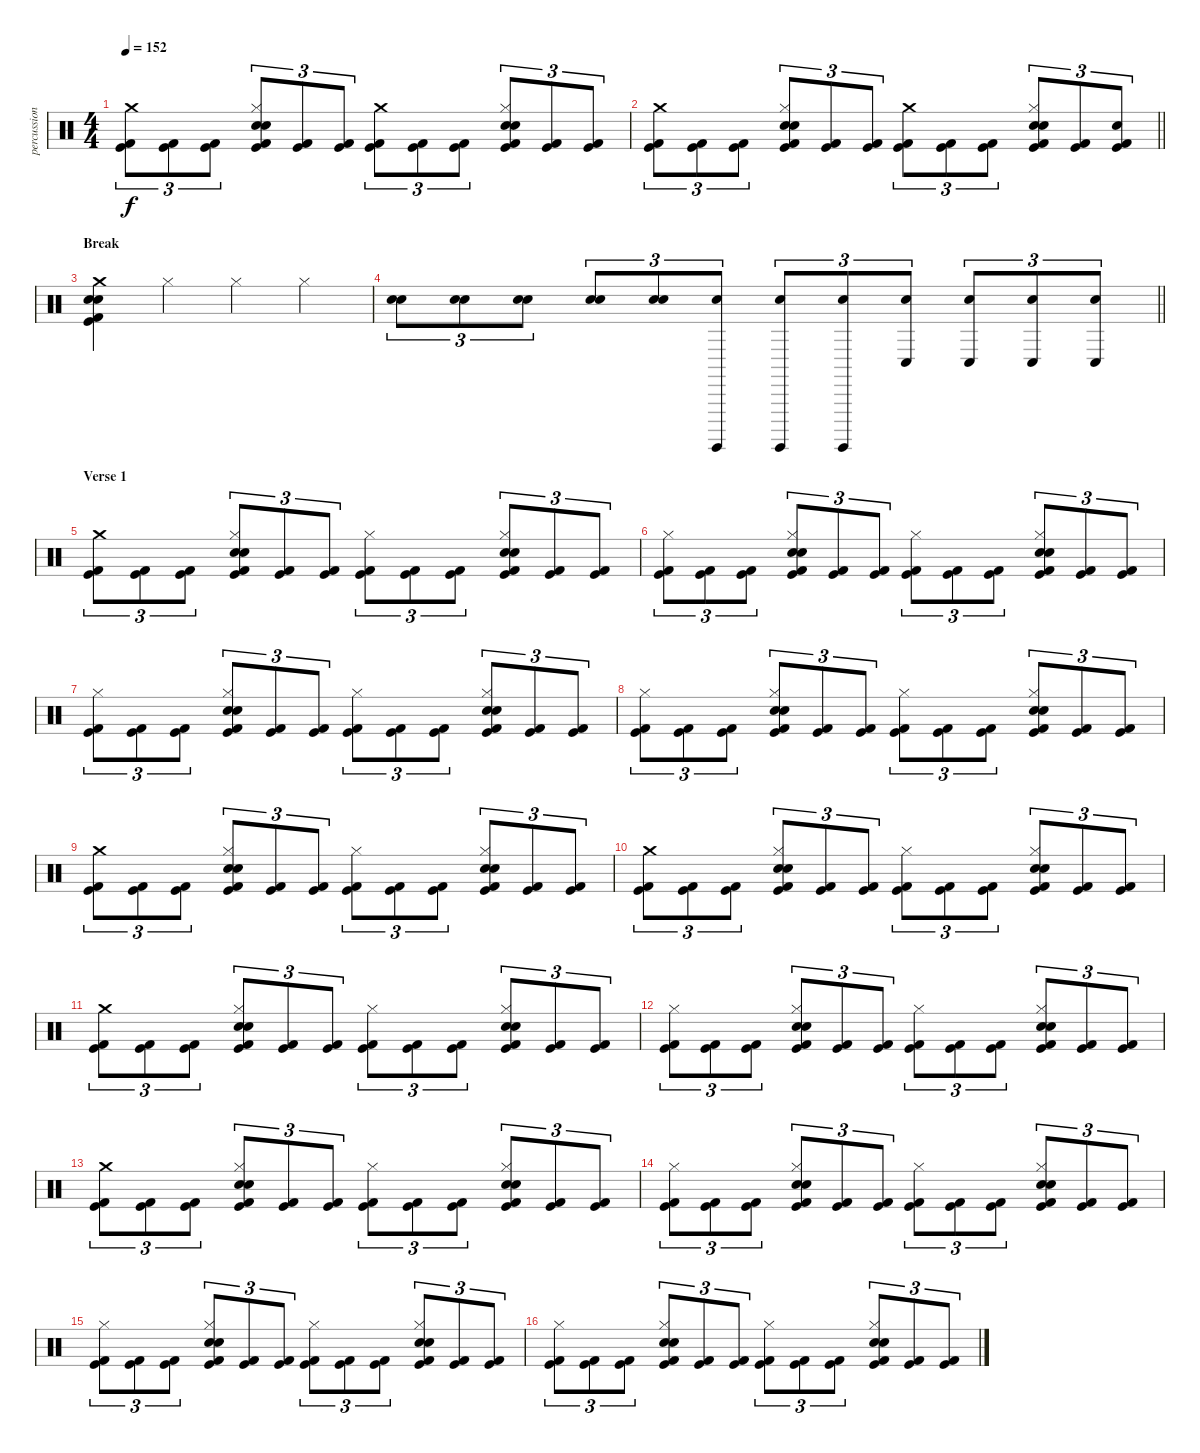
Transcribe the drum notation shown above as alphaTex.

\track ("percussion" "percussion") {instrument percussion}
\staff {score}
\articulation defaults
\ts (4 4)
\tempo 152
\clef neutral
\ks c
("Crash medium (hit)" "Kick (hit)" "Kick (hit) 2").8{tu (3 2) dy f} ("Kick (hit)" "Kick (hit) 2").8{tu (3 2)} ("Kick (hit)" "Kick (hit) 2").8{tu (3 2)} ("Hi-Hat (closed)" "Electric Snare (hit)" "Snare (hit) 2" "Kick (hit)" "Kick (hit) 2").8{tu (3 2)} ("Kick (hit)" "Kick (hit) 2").8{tu (3 2)} ("Kick (hit)" "Kick (hit) 2").8{tu (3 2)} ("Crash medium (hit)" "Kick (hit)" "Kick (hit) 2").8{tu (3 2)} ("Kick (hit)" "Kick (hit) 2").8{tu (3 2)} ("Kick (hit)" "Kick (hit) 2").8{tu (3 2)} ("Hi-Hat (closed)" "Electric Snare (hit)" "Snare (hit) 2" "Kick (hit)" "Kick (hit) 2").8{tu (3 2)} ("Kick (hit)" "Kick (hit) 2").8{tu (3 2)} ("Kick (hit)" "Kick (hit) 2").8{tu (3 2)} |
\barLineRight lightlight
("Crash medium (hit)" "Kick (hit)" "Kick (hit) 2").8{tu (3 2)} ("Kick (hit)" "Kick (hit) 2").8{tu (3 2)} ("Kick (hit)" "Kick (hit) 2").8{tu (3 2)} ("Hi-Hat (closed)" "Electric Snare (hit)" "Snare (hit) 2" "Kick (hit)" "Kick (hit) 2").8{tu (3 2)} ("Kick (hit)" "Kick (hit) 2").8{tu (3 2)} ("Kick (hit)" "Kick (hit) 2").8{tu (3 2)} ("Crash medium (hit)" "Kick (hit)" "Kick (hit) 2").8{tu (3 2)} ("Kick (hit)" "Kick (hit) 2").8{tu (3 2)} ("Kick (hit)" "Kick (hit) 2").8{tu (3 2)} ("Hi-Hat (closed)" "Electric Snare (hit)" "Snare (hit) 2" "Kick (hit)" "Kick (hit) 2").8{tu (3 2)} ("Kick (hit)" "Kick (hit) 2").8{tu (3 2)} ("Electric Snare (hit)" "Kick (hit)" "Kick (hit) 2").8{tu (3 2)} |
\section ("" "Break")
("Crash medium (hit)" "Electric Snare (hit)" "Snare (hit) 2" "Kick (hit)" "Kick (hit) 2").4 "Hi-Hat (closed)".4 "Hi-Hat (closed)".4 "Hi-Hat (closed)".4 |
\barLineRight lightlight
("Electric Snare (hit)" "Snare (hit) 2").8{tu (3 2)} ("Electric Snare (hit)" "Snare (hit) 2").8{tu (3 2)} ("Electric Snare (hit)" "Snare (hit) 2").8{tu (3 2)} ("Electric Snare (hit)" "Snare (hit) 2").8{tu (3 2)} ("Electric Snare (hit)" "Snare (hit) 2").8{tu (3 2)} ("Electric Snare (hit)" "Surdo (hit)").8{tu (3 2)} ("Electric Snare (hit)" "Surdo (hit)").8{tu (3 2)} ("Electric Snare (hit)" "Surdo (hit)").8{tu (3 2)} ("Electric Snare (hit)" "Conga low (hit)").8{tu (3 2)} ("Electric Snare (hit)" "Conga low (hit)").8{tu (3 2)} ("Electric Snare (hit)" "Conga low (hit)").8{tu (3 2)} ("Electric Snare (hit)" "Conga low (hit)").8{tu (3 2)} |
\section ("" "Verse 1")
("Crash medium (hit)" "Kick (hit)" "Kick (hit) 2").8{tu (3 2)} ("Kick (hit)" "Kick (hit) 2").8{tu (3 2)} ("Kick (hit)" "Kick (hit) 2").8{tu (3 2)} ("Hi-Hat (closed)" "Electric Snare (hit)" "Snare (hit) 2" "Kick (hit)" "Kick (hit) 2").8{tu (3 2)} ("Kick (hit)" "Kick (hit) 2").8{tu (3 2)} ("Kick (hit)" "Kick (hit) 2").8{tu (3 2)} ("Hi-Hat (closed)" "Kick (hit)" "Kick (hit) 2").8{tu (3 2)} ("Kick (hit)" "Kick (hit) 2").8{tu (3 2)} ("Kick (hit)" "Kick (hit) 2").8{tu (3 2)} ("Hi-Hat (closed)" "Electric Snare (hit)" "Snare (hit) 2" "Kick (hit)" "Kick (hit) 2").8{tu (3 2)} ("Kick (hit)" "Kick (hit) 2").8{tu (3 2)} ("Kick (hit)" "Kick (hit) 2").8{tu (3 2)} |
("Hi-Hat (closed)" "Kick (hit)" "Kick (hit) 2").8{tu (3 2)} ("Kick (hit)" "Kick (hit) 2").8{tu (3 2)} ("Kick (hit)" "Kick (hit) 2").8{tu (3 2)} ("Hi-Hat (closed)" "Electric Snare (hit)" "Snare (hit) 2" "Kick (hit)" "Kick (hit) 2").8{tu (3 2)} ("Kick (hit)" "Kick (hit) 2").8{tu (3 2)} ("Kick (hit)" "Kick (hit) 2").8{tu (3 2)} ("Hi-Hat (closed)" "Kick (hit)" "Kick (hit) 2").8{tu (3 2)} ("Kick (hit)" "Kick (hit) 2").8{tu (3 2)} ("Kick (hit)" "Kick (hit) 2").8{tu (3 2)} ("Hi-Hat (closed)" "Electric Snare (hit)" "Snare (hit) 2" "Kick (hit)" "Kick (hit) 2").8{tu (3 2)} ("Kick (hit)" "Kick (hit) 2").8{tu (3 2)} ("Kick (hit)" "Kick (hit) 2").8{tu (3 2)} |
("Hi-Hat (closed)" "Kick (hit)" "Kick (hit) 2").8{tu (3 2)} ("Kick (hit)" "Kick (hit) 2").8{tu (3 2)} ("Kick (hit)" "Kick (hit) 2").8{tu (3 2)} ("Hi-Hat (closed)" "Electric Snare (hit)" "Snare (hit) 2" "Kick (hit)" "Kick (hit) 2").8{tu (3 2)} ("Kick (hit)" "Kick (hit) 2").8{tu (3 2)} ("Kick (hit)" "Kick (hit) 2").8{tu (3 2)} ("Hi-Hat (closed)" "Kick (hit)" "Kick (hit) 2").8{tu (3 2)} ("Kick (hit)" "Kick (hit) 2").8{tu (3 2)} ("Kick (hit)" "Kick (hit) 2").8{tu (3 2)} ("Hi-Hat (closed)" "Electric Snare (hit)" "Snare (hit) 2" "Kick (hit)" "Kick (hit) 2").8{tu (3 2)} ("Kick (hit)" "Kick (hit) 2").8{tu (3 2)} ("Kick (hit)" "Kick (hit) 2").8{tu (3 2)} |
("Hi-Hat (closed)" "Kick (hit)" "Kick (hit) 2").8{tu (3 2)} ("Kick (hit)" "Kick (hit) 2").8{tu (3 2)} ("Kick (hit)" "Kick (hit) 2").8{tu (3 2)} ("Hi-Hat (closed)" "Electric Snare (hit)" "Snare (hit) 2" "Kick (hit)" "Kick (hit) 2").8{tu (3 2)} ("Kick (hit)" "Kick (hit) 2").8{tu (3 2)} ("Kick (hit)" "Kick (hit) 2").8{tu (3 2)} ("Hi-Hat (closed)" "Kick (hit)" "Kick (hit) 2").8{tu (3 2)} ("Kick (hit)" "Kick (hit) 2").8{tu (3 2)} ("Kick (hit)" "Kick (hit) 2").8{tu (3 2)} ("Hi-Hat (closed)" "Electric Snare (hit)" "Snare (hit) 2" "Kick (hit)" "Kick (hit) 2").8{tu (3 2)} ("Kick (hit)" "Kick (hit) 2").8{tu (3 2)} ("Kick (hit)" "Kick (hit) 2").8{tu (3 2)} |
("Crash medium (hit)" "Kick (hit)" "Kick (hit) 2").8{tu (3 2)} ("Kick (hit)" "Kick (hit) 2").8{tu (3 2)} ("Kick (hit)" "Kick (hit) 2").8{tu (3 2)} ("Hi-Hat (closed)" "Electric Snare (hit)" "Snare (hit) 2" "Kick (hit)" "Kick (hit) 2").8{tu (3 2)} ("Kick (hit)" "Kick (hit) 2").8{tu (3 2)} ("Kick (hit)" "Kick (hit) 2").8{tu (3 2)} ("Hi-Hat (closed)" "Kick (hit)" "Kick (hit) 2").8{tu (3 2)} ("Kick (hit)" "Kick (hit) 2").8{tu (3 2)} ("Kick (hit)" "Kick (hit) 2").8{tu (3 2)} ("Hi-Hat (closed)" "Electric Snare (hit)" "Snare (hit) 2" "Kick (hit)" "Kick (hit) 2").8{tu (3 2)} ("Kick (hit)" "Kick (hit) 2").8{tu (3 2)} ("Kick (hit)" "Kick (hit) 2").8{tu (3 2)} |
("Crash medium (hit)" "Kick (hit)" "Kick (hit) 2").8{tu (3 2)} ("Kick (hit)" "Kick (hit) 2").8{tu (3 2)} ("Kick (hit)" "Kick (hit) 2").8{tu (3 2)} ("Hi-Hat (closed)" "Electric Snare (hit)" "Snare (hit) 2" "Kick (hit)" "Kick (hit) 2").8{tu (3 2)} ("Kick (hit)" "Kick (hit) 2").8{tu (3 2)} ("Kick (hit)" "Kick (hit) 2").8{tu (3 2)} ("Hi-Hat (closed)" "Kick (hit)" "Kick (hit) 2").8{tu (3 2)} ("Kick (hit)" "Kick (hit) 2").8{tu (3 2)} ("Kick (hit)" "Kick (hit) 2").8{tu (3 2)} ("Hi-Hat (closed)" "Electric Snare (hit)" "Snare (hit) 2" "Kick (hit)" "Kick (hit) 2").8{tu (3 2)} ("Kick (hit)" "Kick (hit) 2").8{tu (3 2)} ("Kick (hit)" "Kick (hit) 2").8{tu (3 2)} |
("Crash medium (hit)" "Kick (hit)" "Kick (hit) 2").8{tu (3 2)} ("Kick (hit)" "Kick (hit) 2").8{tu (3 2)} ("Kick (hit)" "Kick (hit) 2").8{tu (3 2)} ("Hi-Hat (closed)" "Electric Snare (hit)" "Snare (hit) 2" "Kick (hit)" "Kick (hit) 2").8{tu (3 2)} ("Kick (hit)" "Kick (hit) 2").8{tu (3 2)} ("Kick (hit)" "Kick (hit) 2").8{tu (3 2)} ("Hi-Hat (closed)" "Kick (hit)" "Kick (hit) 2").8{tu (3 2)} ("Kick (hit)" "Kick (hit) 2").8{tu (3 2)} ("Kick (hit)" "Kick (hit) 2").8{tu (3 2)} ("Hi-Hat (closed)" "Electric Snare (hit)" "Snare (hit) 2" "Kick (hit)" "Kick (hit) 2").8{tu (3 2)} ("Kick (hit)" "Kick (hit) 2").8{tu (3 2)} ("Kick (hit)" "Kick (hit) 2").8{tu (3 2)} |
("Hi-Hat (closed)" "Kick (hit)" "Kick (hit) 2").8{tu (3 2)} ("Kick (hit)" "Kick (hit) 2").8{tu (3 2)} ("Kick (hit)" "Kick (hit) 2").8{tu (3 2)} ("Hi-Hat (closed)" "Electric Snare (hit)" "Snare (hit) 2" "Kick (hit)" "Kick (hit) 2").8{tu (3 2)} ("Kick (hit)" "Kick (hit) 2").8{tu (3 2)} ("Kick (hit)" "Kick (hit) 2").8{tu (3 2)} ("Hi-Hat (closed)" "Kick (hit)" "Kick (hit) 2").8{tu (3 2)} ("Kick (hit)" "Kick (hit) 2").8{tu (3 2)} ("Kick (hit)" "Kick (hit) 2").8{tu (3 2)} ("Hi-Hat (closed)" "Electric Snare (hit)" "Snare (hit) 2" "Kick (hit)" "Kick (hit) 2").8{tu (3 2)} ("Kick (hit)" "Kick (hit) 2").8{tu (3 2)} ("Kick (hit)" "Kick (hit) 2").8{tu (3 2)} |
("Crash medium (hit)" "Kick (hit)" "Kick (hit) 2").8{tu (3 2)} ("Kick (hit)" "Kick (hit) 2").8{tu (3 2)} ("Kick (hit)" "Kick (hit) 2").8{tu (3 2)} ("Hi-Hat (closed)" "Electric Snare (hit)" "Snare (hit) 2" "Kick (hit)" "Kick (hit) 2").8{tu (3 2)} ("Kick (hit)" "Kick (hit) 2").8{tu (3 2)} ("Kick (hit)" "Kick (hit) 2").8{tu (3 2)} ("Hi-Hat (closed)" "Kick (hit)" "Kick (hit) 2").8{tu (3 2)} ("Kick (hit)" "Kick (hit) 2").8{tu (3 2)} ("Kick (hit)" "Kick (hit) 2").8{tu (3 2)} ("Hi-Hat (closed)" "Electric Snare (hit)" "Snare (hit) 2" "Kick (hit)" "Kick (hit) 2").8{tu (3 2)} ("Kick (hit)" "Kick (hit) 2").8{tu (3 2)} ("Kick (hit)" "Kick (hit) 2").8{tu (3 2)} |
("Hi-Hat (closed)" "Kick (hit)" "Kick (hit) 2").8{tu (3 2)} ("Kick (hit)" "Kick (hit) 2").8{tu (3 2)} ("Kick (hit)" "Kick (hit) 2").8{tu (3 2)} ("Hi-Hat (closed)" "Electric Snare (hit)" "Snare (hit) 2" "Kick (hit)" "Kick (hit) 2").8{tu (3 2)} ("Kick (hit)" "Kick (hit) 2").8{tu (3 2)} ("Kick (hit)" "Kick (hit) 2").8{tu (3 2)} ("Hi-Hat (closed)" "Kick (hit)" "Kick (hit) 2").8{tu (3 2)} ("Kick (hit)" "Kick (hit) 2").8{tu (3 2)} ("Kick (hit)" "Kick (hit) 2").8{tu (3 2)} ("Hi-Hat (closed)" "Electric Snare (hit)" "Snare (hit) 2" "Kick (hit)" "Kick (hit) 2").8{tu (3 2)} ("Kick (hit)" "Kick (hit) 2").8{tu (3 2)} ("Kick (hit)" "Kick (hit) 2").8{tu (3 2)} |
("Hi-Hat (closed)" "Kick (hit)" "Kick (hit) 2").8{tu (3 2)} ("Kick (hit)" "Kick (hit) 2").8{tu (3 2)} ("Kick (hit)" "Kick (hit) 2").8{tu (3 2)} ("Hi-Hat (closed)" "Electric Snare (hit)" "Snare (hit) 2" "Kick (hit)" "Kick (hit) 2").8{tu (3 2)} ("Kick (hit)" "Kick (hit) 2").8{tu (3 2)} ("Kick (hit)" "Kick (hit) 2").8{tu (3 2)} ("Hi-Hat (closed)" "Kick (hit)" "Kick (hit) 2").8{tu (3 2)} ("Kick (hit)" "Kick (hit) 2").8{tu (3 2)} ("Kick (hit)" "Kick (hit) 2").8{tu (3 2)} ("Hi-Hat (closed)" "Electric Snare (hit)" "Snare (hit) 2" "Kick (hit)" "Kick (hit) 2").8{tu (3 2)} ("Kick (hit)" "Kick (hit) 2").8{tu (3 2)} ("Kick (hit)" "Kick (hit) 2").8{tu (3 2)} |
("Hi-Hat (closed)" "Kick (hit)" "Kick (hit) 2").8{tu (3 2)} ("Kick (hit)" "Kick (hit) 2").8{tu (3 2)} ("Kick (hit)" "Kick (hit) 2").8{tu (3 2)} ("Hi-Hat (closed)" "Electric Snare (hit)" "Snare (hit) 2" "Kick (hit)" "Kick (hit) 2").8{tu (3 2)} ("Kick (hit)" "Kick (hit) 2").8{tu (3 2)} ("Kick (hit)" "Kick (hit) 2").8{tu (3 2)} ("Hi-Hat (closed)" "Kick (hit)" "Kick (hit) 2").8{tu (3 2)} ("Kick (hit)" "Kick (hit) 2").8{tu (3 2)} ("Kick (hit)" "Kick (hit) 2").8{tu (3 2)} ("Hi-Hat (closed)" "Electric Snare (hit)" "Snare (hit) 2" "Kick (hit)" "Kick (hit) 2").8{tu (3 2)} ("Kick (hit)" "Kick (hit) 2").8{tu (3 2)} ("Kick (hit)" "Kick (hit) 2").8{tu (3 2)}
